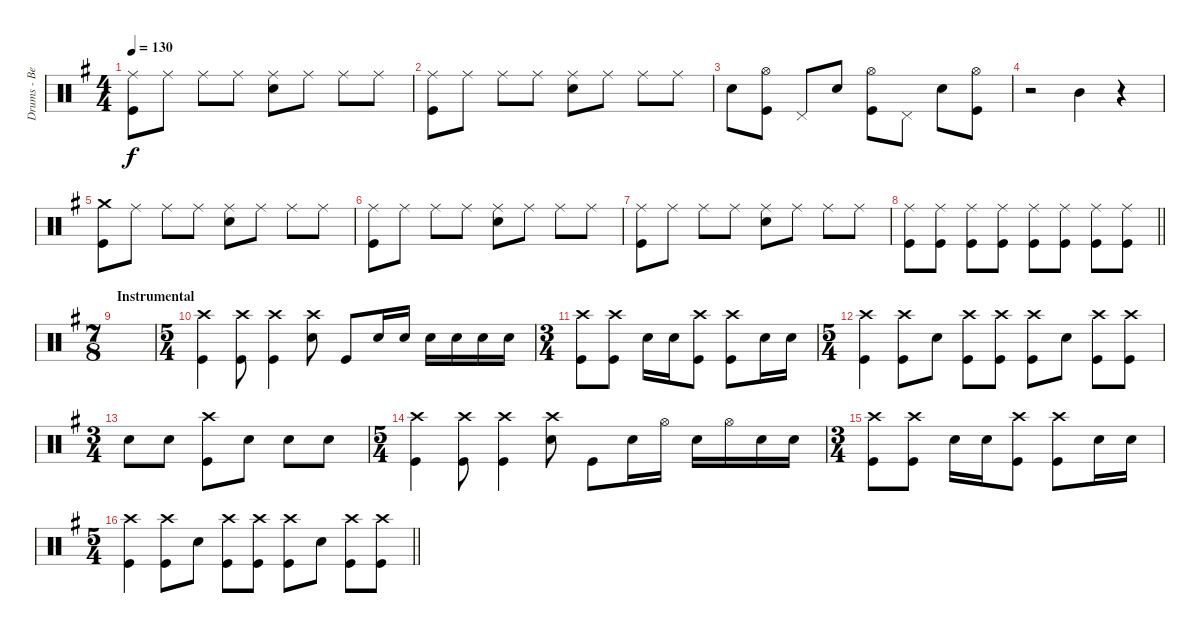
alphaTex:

\track ("Drums - Ben Johnston" "Drums - Be") {instrument percussion}
\staff {score}
\articulation defaults
\ts (4 4)
\tempo 130
\clef neutral
\ks eminor
("Ride (middle)" "Kick (hit)").8{dy f} "Ride (middle)".8 "Ride (middle)".8 "Ride (middle)".8 ("Ride (middle)" "Snare (hit) 2").8 "Ride (middle)".8 "Ride (middle)".8 "Ride (middle)".8 |
("Ride (middle)" "Kick (hit)").8 "Ride (middle)".8 "Ride (middle)".8 "Ride (middle)".8 ("Ride (middle)" "Snare (hit) 2").8 "Ride (middle)".8 "Ride (middle)".8 "Ride (middle)".8 |
"Snare (hit) 2".8 ("Hi-Hat (open)" "Kick (hit)").8 "Pedal Hi-Hat (hit)".8 "Snare (hit) 2".8 ("Hi-Hat (open)" "Kick (hit)").8 "Pedal Hi-Hat (hit)".8 "Snare (hit) 2".8 ("Hi-Hat (open)" "Kick (hit)").8 |
r.2 "Mid Tom (hit)".4 r.4 |
("Crash medium (hit)" "Kick (hit)").8 "Ride (middle)".8 "Ride (middle)".8 "Ride (middle)".8 ("Ride (middle)" "Snare (hit) 2").8 "Ride (middle)".8 "Ride (middle)".8 "Ride (middle)".8 |
("Ride (middle)" "Kick (hit)").8 "Ride (middle)".8 "Ride (middle)".8 "Ride (middle)".8 ("Ride (middle)" "Snare (hit) 2").8 "Ride (middle)".8 "Ride (middle)".8 "Ride (middle)".8 |
("Ride (middle)" "Kick (hit)").8 "Ride (middle)".8 "Ride (middle)".8 "Ride (middle)".8 ("Ride (middle)" "Snare (hit) 2").8 "Ride (middle)".8 "Ride (middle)".8 "Ride (middle)".8 |
\barLineRight lightlight
("Ride (middle)" "Kick (hit)").8 ("Ride (middle)" "Kick (hit)").8 ("Ride (middle)" "Kick (hit)").8 ("Ride (middle)" "Kick (hit)").8 ("Ride (middle)" "Kick (hit)").8 ("Ride (middle)" "Kick (hit)").8 ("Ride (middle)" "Kick (hit)").8 ("Ride (middle)" "Kick (hit)").8 |
\ts (7 8)
\section ("" "Instrumental")
|
\ts (5 4)
("Crash high (hit)" "Kick (hit)").4{volume 14} ("Crash high (hit)" "Kick (hit)").8 ("Crash high (hit)" "Kick (hit)").4 ("Crash high (hit)" "Snare (hit) 2").8 "Kick (hit)".8 "Snare (hit) 2".16 "Snare (hit) 2".16 "Snare (hit) 2".16 "Snare (hit) 2".16 "Snare (hit) 2".16 "Snare (hit) 2".16 |
\ts (3 4)
("Crash high (hit)" "Kick (hit)").8 ("Crash high (hit)" "Kick (hit)").8 "Snare (hit) 2".16 "Snare (hit) 2".16 ("Crash high (hit)" "Kick (hit)").8 ("Crash high (hit)" "Kick (hit)").8 "Snare (hit) 2".16 "Snare (hit) 2".16 |
\ts (5 4)
("Crash high (hit)" "Kick (hit)").4 ("Crash high (hit)" "Kick (hit)").8 "Snare (hit) 2".8 ("Crash high (hit)" "Kick (hit)").8 ("Crash high (hit)" "Kick (hit)").8 ("Crash high (hit)" "Kick (hit)").8 "Snare (hit) 2".8 ("Crash high (hit)" "Kick (hit)").8 ("Crash high (hit)" "Kick (hit)").8 |
\ts (3 4)
"Snare (hit) 2".8 "Snare (hit) 2".8 ("Crash high (hit)" "Kick (hit)").8 "Snare (hit) 2".8 "Snare (hit) 2".8 "Snare (hit) 2".8 |
\ts (5 4)
("Crash high (hit)" "Kick (hit)").4 ("Crash high (hit)" "Kick (hit)").8 ("Crash high (hit)" "Kick (hit)").4 ("Crash high (hit)" "Snare (hit) 2").8 "Kick (hit)".8 "Snare (hit) 2".16 "Hi-Hat (open)".16 "Snare (hit) 2".16 "Hi-Hat (open)".16 "Snare (hit) 2".16 "Snare (hit) 2".16 |
\ts (3 4)
("Crash high (hit)" "Kick (hit)").8 ("Crash high (hit)" "Kick (hit)").8 "Snare (hit) 2".16 "Snare (hit) 2".16 ("Crash high (hit)" "Kick (hit)").8 ("Crash high (hit)" "Kick (hit)").8 "Snare (hit) 2".16 "Snare (hit) 2".16 |
\ts (5 4)
\barLineRight lightlight
("Crash high (hit)" "Kick (hit)").4 ("Crash high (hit)" "Kick (hit)").8 "Snare (hit) 2".8 ("Crash high (hit)" "Kick (hit)").8 ("Crash high (hit)" "Kick (hit)").8 ("Crash high (hit)" "Kick (hit)").8 "Snare (hit) 2".8 ("Crash high (hit)" "Kick (hit)").8 ("Crash high (hit)" "Kick (hit)").8
